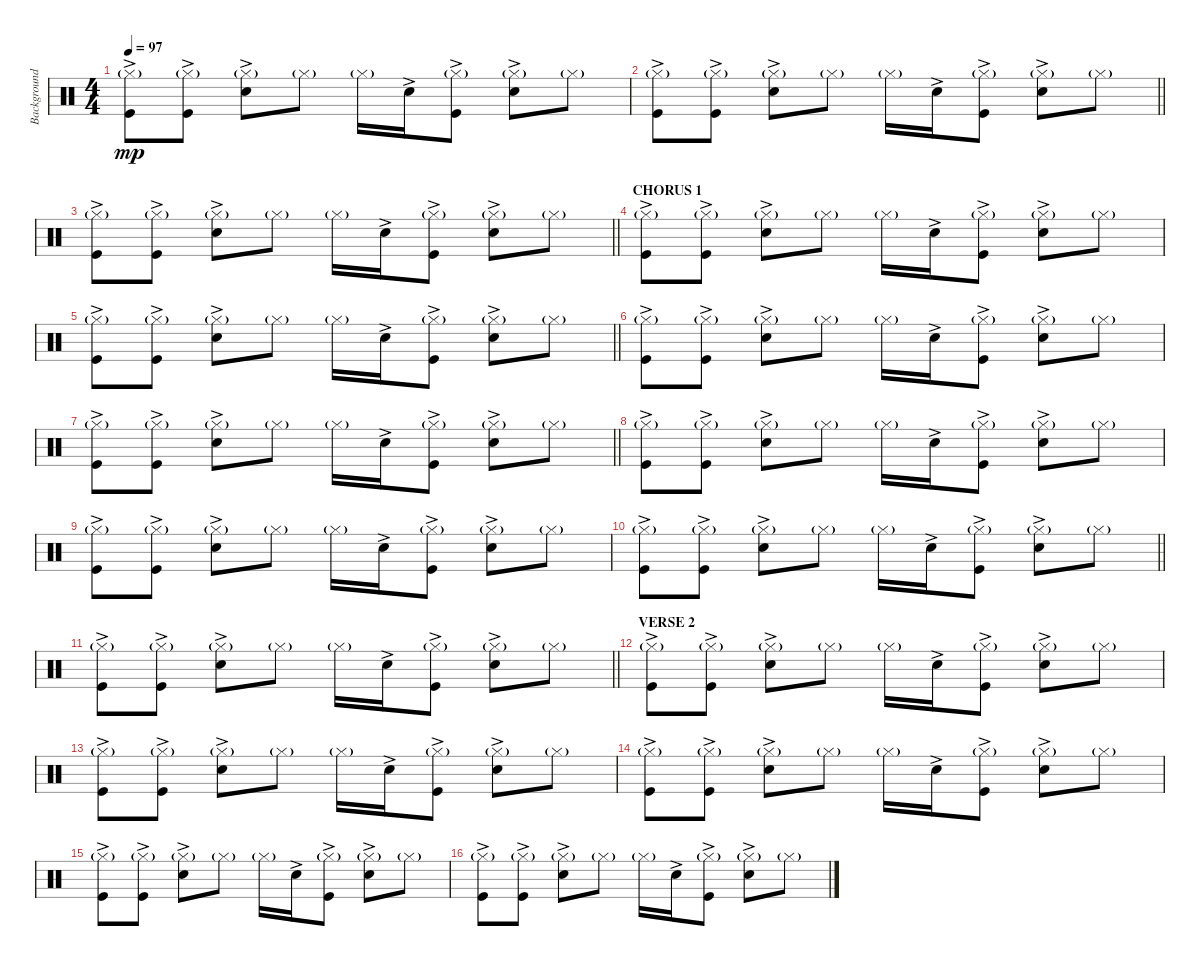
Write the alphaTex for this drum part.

\track ("Background Drums" "Background") {instrument percussion}
\staff {score}
\articulation defaults
\ts (4 4)
\tempo 97
\clef neutral
\ks c
("Hi-Hat (closed)"{g} "Kick (hit)"{ac}).8{dy mp} ("Hi-Hat (closed)"{g} "Kick (hit)"{ac}).8 ("Hi-Hat (closed)"{g} "Hand Clap (hit)"{ac}).8 "Hi-Hat (closed)"{g}.8 "Hi-Hat (closed)"{g}.16 "Hand Clap (hit)"{ac}.16 ("Hi-Hat (closed)"{g} "Kick (hit)"{ac}).8 ("Hi-Hat (closed)"{g} "Hand Clap (hit)"{ac}).8 "Hi-Hat (closed)"{g}.8 |
\barLineRight lightlight
("Hi-Hat (closed)"{g} "Kick (hit)"{ac}).8 ("Hi-Hat (closed)"{g} "Kick (hit)"{ac}).8 ("Hi-Hat (closed)"{g} "Hand Clap (hit)"{ac}).8 "Hi-Hat (closed)"{g}.8 "Hi-Hat (closed)"{g}.16 "Hand Clap (hit)"{ac}.16 ("Hi-Hat (closed)"{g} "Kick (hit)"{ac}).8 ("Hi-Hat (closed)"{g} "Hand Clap (hit)"{ac}).8 "Hi-Hat (closed)"{g}.8 |
\barLineRight lightlight
("Hi-Hat (closed)"{g} "Kick (hit)"{ac}).8 ("Hi-Hat (closed)"{g} "Kick (hit)"{ac}).8 ("Hi-Hat (closed)"{g} "Hand Clap (hit)"{ac}).8 "Hi-Hat (closed)"{g}.8 "Hi-Hat (closed)"{g}.16 "Hand Clap (hit)"{ac}.16 ("Hi-Hat (closed)"{g} "Kick (hit)"{ac}).8 ("Hi-Hat (closed)"{g} "Hand Clap (hit)"{ac}).8 "Hi-Hat (closed)"{g}.8 |
\section ("" "CHORUS 1")
("Hi-Hat (closed)"{g} "Kick (hit)"{ac}).8 ("Hi-Hat (closed)"{g} "Kick (hit)"{ac}).8 ("Hi-Hat (closed)"{g} "Hand Clap (hit)"{ac}).8 "Hi-Hat (closed)"{g}.8 "Hi-Hat (closed)"{g}.16 "Hand Clap (hit)"{ac}.16 ("Hi-Hat (closed)"{g} "Kick (hit)"{ac}).8 ("Hi-Hat (closed)"{g} "Hand Clap (hit)"{ac}).8 "Hi-Hat (closed)"{g}.8 |
\barLineRight lightlight
("Hi-Hat (closed)"{g} "Kick (hit)"{ac}).8 ("Hi-Hat (closed)"{g} "Kick (hit)"{ac}).8 ("Hi-Hat (closed)"{g} "Hand Clap (hit)"{ac}).8 "Hi-Hat (closed)"{g}.8 "Hi-Hat (closed)"{g}.16 "Hand Clap (hit)"{ac}.16 ("Hi-Hat (closed)"{g} "Kick (hit)"{ac}).8 ("Hi-Hat (closed)"{g} "Hand Clap (hit)"{ac}).8 "Hi-Hat (closed)"{g}.8 |
("Hi-Hat (closed)"{g} "Kick (hit)"{ac}).8 ("Hi-Hat (closed)"{g} "Kick (hit)"{ac}).8 ("Hi-Hat (closed)"{g} "Hand Clap (hit)"{ac}).8 "Hi-Hat (closed)"{g}.8 "Hi-Hat (closed)"{g}.16 "Hand Clap (hit)"{ac}.16 ("Hi-Hat (closed)"{g} "Kick (hit)"{ac}).8 ("Hi-Hat (closed)"{g} "Hand Clap (hit)"{ac}).8 "Hi-Hat (closed)"{g}.8 |
\barLineRight lightlight
("Hi-Hat (closed)"{g} "Kick (hit)"{ac}).8 ("Hi-Hat (closed)"{g} "Kick (hit)"{ac}).8 ("Hi-Hat (closed)"{g} "Hand Clap (hit)"{ac}).8 "Hi-Hat (closed)"{g}.8 "Hi-Hat (closed)"{g}.16 "Hand Clap (hit)"{ac}.16 ("Hi-Hat (closed)"{g} "Kick (hit)"{ac}).8 ("Hi-Hat (closed)"{g} "Hand Clap (hit)"{ac}).8 "Hi-Hat (closed)"{g}.8 |
("Hi-Hat (closed)"{g} "Kick (hit)"{ac}).8 ("Hi-Hat (closed)"{g} "Kick (hit)"{ac}).8 ("Hi-Hat (closed)"{g} "Hand Clap (hit)"{ac}).8 "Hi-Hat (closed)"{g}.8 "Hi-Hat (closed)"{g}.16 "Hand Clap (hit)"{ac}.16 ("Hi-Hat (closed)"{g} "Kick (hit)"{ac}).8 ("Hi-Hat (closed)"{g} "Hand Clap (hit)"{ac}).8 "Hi-Hat (closed)"{g}.8 |
("Hi-Hat (closed)"{g} "Kick (hit)"{ac}).8 ("Hi-Hat (closed)"{g} "Kick (hit)"{ac}).8 ("Hi-Hat (closed)"{g} "Hand Clap (hit)"{ac}).8 "Hi-Hat (closed)"{g}.8 "Hi-Hat (closed)"{g}.16 "Hand Clap (hit)"{ac}.16 ("Hi-Hat (closed)"{g} "Kick (hit)"{ac}).8 ("Hi-Hat (closed)"{g} "Hand Clap (hit)"{ac}).8 "Hi-Hat (closed)"{g}.8 |
\barLineRight lightlight
("Hi-Hat (closed)"{g} "Kick (hit)"{ac}).8 ("Hi-Hat (closed)"{g} "Kick (hit)"{ac}).8 ("Hi-Hat (closed)"{g} "Hand Clap (hit)"{ac}).8 "Hi-Hat (closed)"{g}.8 "Hi-Hat (closed)"{g}.16 "Hand Clap (hit)"{ac}.16 ("Hi-Hat (closed)"{g} "Kick (hit)"{ac}).8 ("Hi-Hat (closed)"{g} "Hand Clap (hit)"{ac}).8 "Hi-Hat (closed)"{g}.8 |
\barLineRight lightlight
("Hi-Hat (closed)"{g} "Kick (hit)"{ac}).8 ("Hi-Hat (closed)"{g} "Kick (hit)"{ac}).8 ("Hi-Hat (closed)"{g} "Hand Clap (hit)"{ac}).8 "Hi-Hat (closed)"{g}.8 "Hi-Hat (closed)"{g}.16 "Hand Clap (hit)"{ac}.16 ("Hi-Hat (closed)"{g} "Kick (hit)"{ac}).8 ("Hi-Hat (closed)"{g} "Hand Clap (hit)"{ac}).8 "Hi-Hat (closed)"{g}.8 |
\section ("" "VERSE 2")
("Hi-Hat (closed)"{g} "Kick (hit)"{ac}).8 ("Hi-Hat (closed)"{g} "Kick (hit)"{ac}).8 ("Hi-Hat (closed)"{g} "Hand Clap (hit)"{ac}).8 "Hi-Hat (closed)"{g}.8 "Hi-Hat (closed)"{g}.16 "Hand Clap (hit)"{ac}.16 ("Hi-Hat (closed)"{g} "Kick (hit)"{ac}).8 ("Hi-Hat (closed)"{g} "Hand Clap (hit)"{ac}).8 "Hi-Hat (closed)"{g}.8 |
("Hi-Hat (closed)"{g} "Kick (hit)"{ac}).8 ("Hi-Hat (closed)"{g} "Kick (hit)"{ac}).8 ("Hi-Hat (closed)"{g} "Hand Clap (hit)"{ac}).8 "Hi-Hat (closed)"{g}.8 "Hi-Hat (closed)"{g}.16 "Hand Clap (hit)"{ac}.16 ("Hi-Hat (closed)"{g} "Kick (hit)"{ac}).8 ("Hi-Hat (closed)"{g} "Hand Clap (hit)"{ac}).8 "Hi-Hat (closed)"{g}.8 |
("Hi-Hat (closed)"{g} "Kick (hit)"{ac}).8 ("Hi-Hat (closed)"{g} "Kick (hit)"{ac}).8 ("Hi-Hat (closed)"{g} "Hand Clap (hit)"{ac}).8 "Hi-Hat (closed)"{g}.8 "Hi-Hat (closed)"{g}.16 "Hand Clap (hit)"{ac}.16 ("Hi-Hat (closed)"{g} "Kick (hit)"{ac}).8 ("Hi-Hat (closed)"{g} "Hand Clap (hit)"{ac}).8 "Hi-Hat (closed)"{g}.8 |
("Hi-Hat (closed)"{g} "Kick (hit)"{ac}).8 ("Hi-Hat (closed)"{g} "Kick (hit)"{ac}).8 ("Hi-Hat (closed)"{g} "Hand Clap (hit)"{ac}).8 "Hi-Hat (closed)"{g}.8 "Hi-Hat (closed)"{g}.16 "Hand Clap (hit)"{ac}.16 ("Hi-Hat (closed)"{g} "Kick (hit)"{ac}).8 ("Hi-Hat (closed)"{g} "Hand Clap (hit)"{ac}).8 "Hi-Hat (closed)"{g}.8 |
("Hi-Hat (closed)"{g} "Kick (hit)"{ac}).8 ("Hi-Hat (closed)"{g} "Kick (hit)"{ac}).8 ("Hi-Hat (closed)"{g} "Hand Clap (hit)"{ac}).8 "Hi-Hat (closed)"{g}.8 "Hi-Hat (closed)"{g}.16 "Hand Clap (hit)"{ac}.16 ("Hi-Hat (closed)"{g} "Kick (hit)"{ac}).8 ("Hi-Hat (closed)"{g} "Hand Clap (hit)"{ac}).8 "Hi-Hat (closed)"{g}.8
